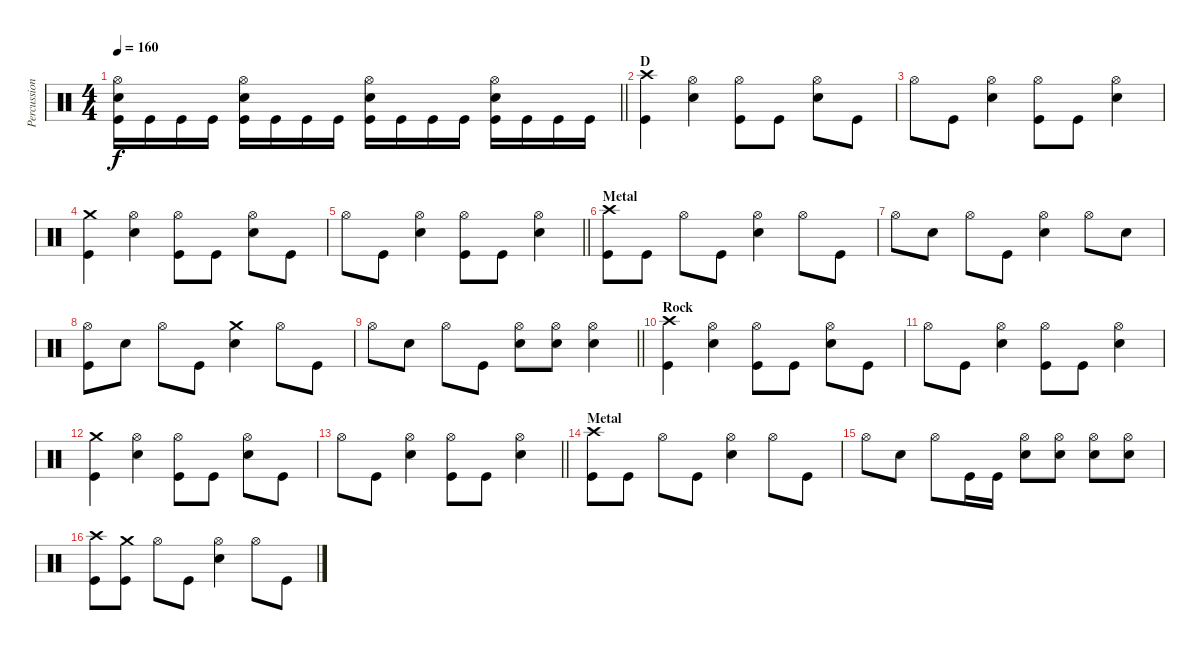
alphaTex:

\track ("Percussion" "Percussion") {instrument percussion}
\staff {score}
\articulation defaults
\ts (4 4)
\tempo 160
\clef neutral
\barLineRight lightlight
\ks c
("Hi-Hat (open)" "Electric Snare (hit)" "Kick (hit)").16{dy f} "Kick (hit)".16 "Kick (hit)".16 "Kick (hit)".16 ("Hi-Hat (open)" "Electric Snare (hit)" "Kick (hit)").16 "Kick (hit)".16 "Kick (hit)".16 "Kick (hit)".16 ("Hi-Hat (open)" "Electric Snare (hit)" "Kick (hit)").16 "Kick (hit)".16 "Kick (hit)".16 "Kick (hit)".16 ("Hi-Hat (open)" "Electric Snare (hit)" "Kick (hit)").16 "Kick (hit)".16 "Kick (hit)".16 "Kick (hit)".16 |
\section ("" "D")
("Crash high (hit)" "Kick (hit)").4 ("Hi-Hat (open)" "Electric Snare (hit)").4 ("Hi-Hat (open)" "Kick (hit)").8 "Kick (hit)".8 ("Hi-Hat (open)" "Electric Snare (hit)").8 "Kick (hit)".8 |
"Hi-Hat (open)".8 "Kick (hit)".8 ("Hi-Hat (open)" "Electric Snare (hit)").4 ("Hi-Hat (open)" "Kick (hit)").8 "Kick (hit)".8 ("Hi-Hat (open)" "Electric Snare (hit)").4 |
("Crash medium (hit)" "Kick (hit)").4 ("Hi-Hat (open)" "Electric Snare (hit)").4 ("Hi-Hat (open)" "Kick (hit)").8 "Kick (hit)".8 ("Hi-Hat (open)" "Electric Snare (hit)").8 "Kick (hit)".8 |
\barLineRight lightlight "Hi-Hat (open)".8 "Kick (hit)".8
("Hi-Hat (open)" "Electric Snare (hit)").4 ("Hi-Hat (open)" "Kick (hit)").8 "Kick (hit)".8 ("Hi-Hat (open)" "Electric Snare (hit)").4 |
\section ("" "Metal")
("Crash high (hit)" "Kick (hit)").8 "Kick (hit)".8 "Hi-Hat (open)".8 "Kick (hit)".8 ("Hi-Hat (open)" "Electric Snare (hit)").4 "Hi-Hat (open)".8 "Kick (hit)".8 |
"Hi-Hat (open)".8 "Electric Snare (hit)".8 "Hi-Hat (open)".8 "Kick (hit)".8 ("Hi-Hat (open)" "Electric Snare (hit)").4 "Hi-Hat (open)".8 "Electric Snare (hit)".8 |
("Hi-Hat (open)" "Kick (hit)").8 "Electric Snare (hit)".8 "Hi-Hat (open)".8 "Kick (hit)".8 ("Crash medium (hit)" "Electric Snare (hit)").4 "Hi-Hat (open)".8 "Kick (hit)".8 |
\barLineRight lightlight "Hi-Hat (open)".8 "Electric Snare (hit)".8 "Hi-Hat (open)".8 "Kick (hit)".8
("Hi-Hat (open)" "Electric Snare (hit)").8 ("Hi-Hat (open)" "Electric Snare (hit)").8 ("Hi-Hat (open)" "Electric Snare (hit)").4 |
\section ("" "Rock")
("Crash high (hit)" "Kick (hit)").4 ("Hi-Hat (open)" "Electric Snare (hit)").4 ("Hi-Hat (open)" "Kick (hit)").8 "Kick (hit)".8 ("Hi-Hat (open)" "Electric Snare (hit)").8 "Kick (hit)".8 |
"Hi-Hat (open)".8 "Kick (hit)".8 ("Hi-Hat (open)" "Electric Snare (hit)").4 ("Hi-Hat (open)" "Kick (hit)").8 "Kick (hit)".8 ("Hi-Hat (open)" "Electric Snare (hit)").4 |
("Crash medium (hit)" "Kick (hit)").4 ("Hi-Hat (open)" "Electric Snare (hit)").4 ("Hi-Hat (open)" "Kick (hit)").8 "Kick (hit)".8 ("Hi-Hat (open)" "Electric Snare (hit)").8 "Kick (hit)".8 |
\barLineRight lightlight "Hi-Hat (open)".8 "Kick (hit)".8
("Hi-Hat (open)" "Electric Snare (hit)").4 ("Hi-Hat (open)" "Kick (hit)").8 "Kick (hit)".8 ("Hi-Hat (open)" "Electric Snare (hit)").4 |
\section ("" "Metal")
("Crash high (hit)" "Kick (hit)").8 "Kick (hit)".8 "Hi-Hat (open)".8 "Kick (hit)".8 ("Hi-Hat (open)" "Electric Snare (hit)").4 "Hi-Hat (open)".8 "Kick (hit)".8 |
"Hi-Hat (open)".8 "Electric Snare (hit)".8 "Hi-Hat (open)".8 "Kick (hit)".16 "Kick (hit)".16 ("Hi-Hat (open)" "Electric Snare (hit)").8 ("Hi-Hat (open)" "Electric Snare (hit)").8 ("Hi-Hat (open)" "Electric Snare (hit)").8 ("Hi-Hat (open)" "Electric Snare (hit)").8 |
("Crash high (hit)" "Kick (hit)").8 ("Crash medium (hit)" "Kick (hit)").8 "Hi-Hat (open)".8 "Kick (hit)".8 ("Hi-Hat (open)" "Electric Snare (hit)").4 "Hi-Hat (open)".8 "Kick (hit)".8
